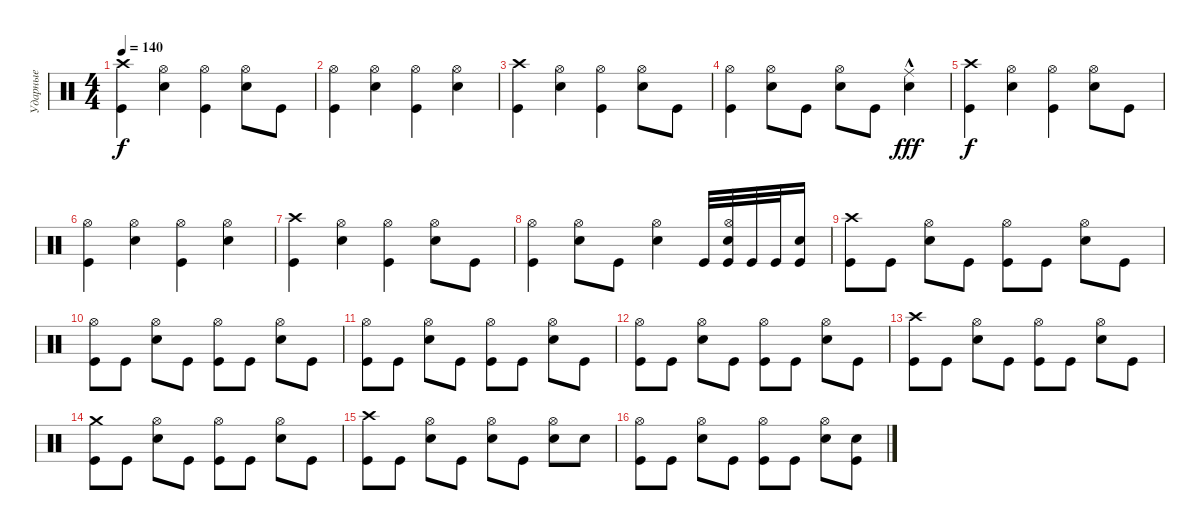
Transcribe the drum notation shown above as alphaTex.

\track ("Ударные" "Ударные") {instrument percussion}
\staff {score}
\articulation defaults
\ts (4 4)
\tempo 140
\clef neutral
\ks c
("Crash high (hit)" "Kick (hit)").4{dy f} ("Hi-Hat (open)" "Electric Snare (hit)").4 ("Hi-Hat (open)" "Kick (hit)").4 ("Hi-Hat (open)" "Electric Snare (hit)").8 "Kick (hit)".8 |
("Hi-Hat (open)" "Kick (hit)").4 ("Hi-Hat (open)" "Electric Snare (hit)").4 ("Hi-Hat (open)" "Kick (hit)").4 ("Hi-Hat (open)" "Electric Snare (hit)").4 |
("Crash high (hit)" "Kick (hit)").4 ("Hi-Hat (open)" "Electric Snare (hit)").4 ("Hi-Hat (open)" "Kick (hit)").4 ("Hi-Hat (open)" "Electric Snare (hit)").8 "Kick (hit)".8 |
("Hi-Hat (open)" "Kick (hit)").4 ("Hi-Hat (open)" "Electric Snare (hit)").8 "Kick (hit)".8 ("Hi-Hat (open)" "Electric Snare (hit)").8 "Kick (hit)".8 ("Ride (middle)"{hac} "Electric Snare (hit)").4{dy fff} |
("Crash high (hit)" "Kick (hit)").4{dy f} ("Hi-Hat (open)" "Electric Snare (hit)").4 ("Hi-Hat (open)" "Kick (hit)").4 ("Hi-Hat (open)" "Electric Snare (hit)").8 "Kick (hit)".8 |
("Hi-Hat (open)" "Kick (hit)").4 ("Hi-Hat (open)" "Electric Snare (hit)").4 ("Hi-Hat (open)" "Kick (hit)").4 ("Hi-Hat (open)" "Electric Snare (hit)").4 |
("Crash high (hit)" "Kick (hit)").4 ("Hi-Hat (open)" "Electric Snare (hit)").4 ("Hi-Hat (open)" "Kick (hit)").4 ("Hi-Hat (open)" "Electric Snare (hit)").8 "Kick (hit)".8 |
("Hi-Hat (open)" "Kick (hit)").4 ("Hi-Hat (open)" "Electric Snare (hit)").8 "Kick (hit)".8 ("Hi-Hat (open)" "Electric Snare (hit)").4 "Kick (hit)".32 ("Hi-Hat (open)" "Electric Snare (hit)" "Kick (hit)").32 "Kick (hit)".32 "Kick (hit)".32 ("Electric Snare (hit)" "Kick (hit)").16 |
("Crash high (hit)" "Kick (hit)").8 "Kick (hit)".8 ("Hi-Hat (open)" "Electric Snare (hit)").8 "Kick (hit)".8 ("Hi-Hat (open)" "Kick (hit)").8 "Kick (hit)".8 ("Hi-Hat (open)" "Electric Snare (hit)").8 "Kick (hit)".8 |
("Hi-Hat (open)" "Kick (hit)").8 "Kick (hit)".8 ("Hi-Hat (open)" "Electric Snare (hit)").8 "Kick (hit)".8 ("Hi-Hat (open)" "Kick (hit)").8 "Kick (hit)".8 ("Hi-Hat (open)" "Electric Snare (hit)").8 "Kick (hit)".8 |
("Hi-Hat (open)" "Kick (hit)").8 "Kick (hit)".8 ("Hi-Hat (open)" "Electric Snare (hit)").8 "Kick (hit)".8 ("Hi-Hat (open)" "Kick (hit)").8 "Kick (hit)".8 ("Hi-Hat (open)" "Electric Snare (hit)").8 "Kick (hit)".8 |
("Hi-Hat (open)" "Kick (hit)").8 "Kick (hit)".8 ("Hi-Hat (open)" "Electric Snare (hit)").8 "Kick (hit)".8 ("Hi-Hat (open)" "Kick (hit)").8 "Kick (hit)".8 ("Hi-Hat (open)" "Electric Snare (hit)").8 "Kick (hit)".8 |
("Crash high (hit)" "Kick (hit)").8 "Kick (hit)".8 ("Hi-Hat (open)" "Electric Snare (hit)").8 "Kick (hit)".8 ("Hi-Hat (open)" "Kick (hit)").8 "Kick (hit)".8 ("Hi-Hat (open)" "Electric Snare (hit)").8 "Kick (hit)".8 |
("Crash medium (hit)" "Kick (hit)").8 "Kick (hit)".8 ("Hi-Hat (open)" "Electric Snare (hit)").8 "Kick (hit)".8 ("Hi-Hat (open)" "Kick (hit)").8 "Kick (hit)".8 ("Hi-Hat (open)" "Electric Snare (hit)").8 "Kick (hit)".8 |
("Crash high (hit)" "Kick (hit)").8 "Kick (hit)".8 ("Hi-Hat (open)" "Electric Snare (hit)").8 "Kick (hit)".8 ("Hi-Hat (open)" "Electric Snare (hit)").8 "Kick (hit)".8 ("Hi-Hat (open)" "Electric Snare (hit)").8 "Electric Snare (hit)".8 |
("Hi-Hat (open)" "Kick (hit)").8 "Kick (hit)".8 ("Hi-Hat (open)" "Electric Snare (hit)").8 "Kick (hit)".8 ("Hi-Hat (open)" "Kick (hit)").8 "Kick (hit)".8 ("Hi-Hat (open)" "Electric Snare (hit)").8 ("Electric Snare (hit)" "Kick (hit)").8
